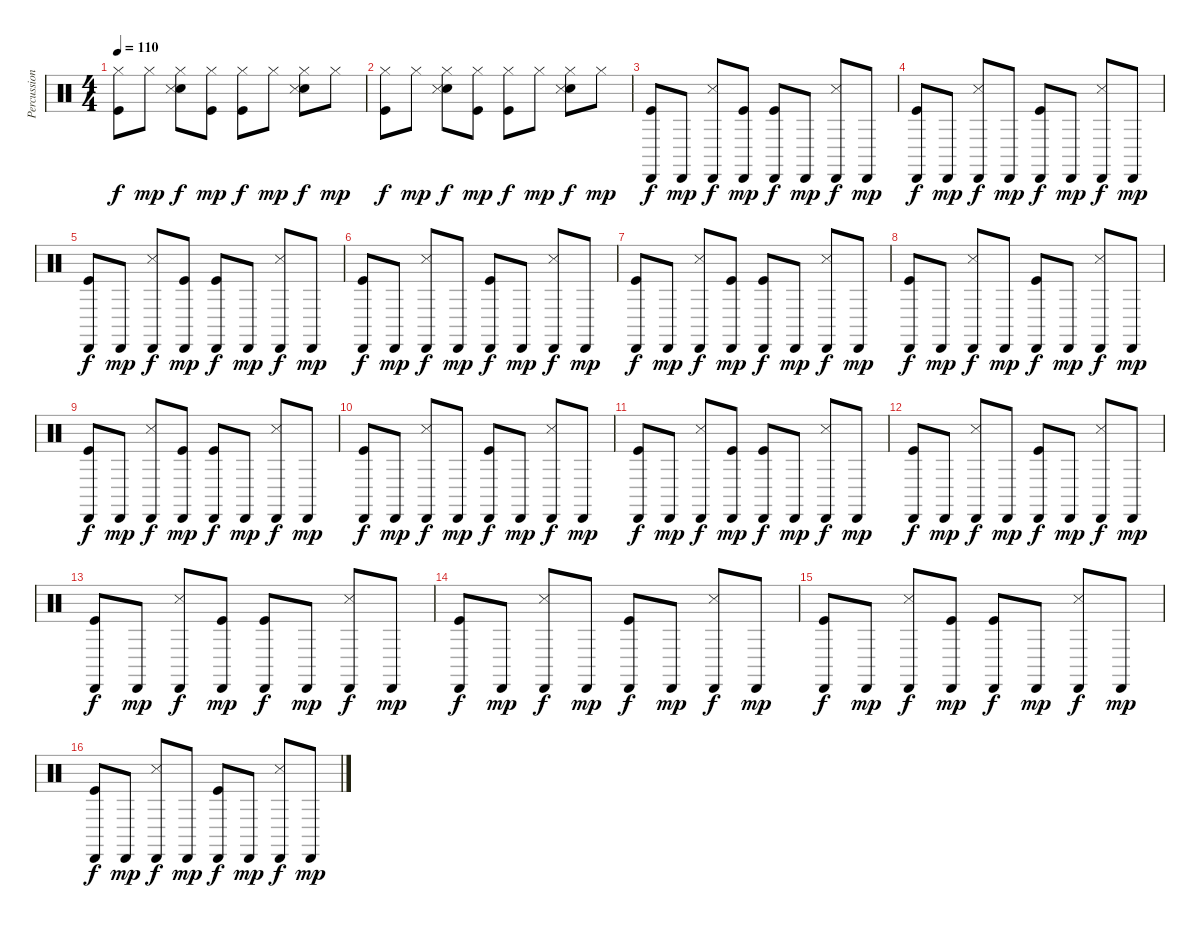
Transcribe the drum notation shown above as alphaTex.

\track ("Percussions" "Percussion") {instrument percussion}
\staff {score}
\articulation defaults
\ts (4 4)
\tempo 110
\clef neutral
\ks c
("Hi-Hat (closed)" "Kick (hit)").8{dy f} "Hi-Hat (closed)".8{dy mp} ("Hi-Hat (closed)" "Hand Clap (hit)" "Snare (side stick) 3").8{dy f} ("Hi-Hat (closed)" "Kick (hit)").8{dy mp} ("Hi-Hat (closed)" "Kick (hit)").8{dy f} "Hi-Hat (closed)".8{dy mp} ("Hi-Hat (closed)" "Hand Clap (hit)" "Snare (side stick) 3").8{dy f} "Hi-Hat (closed)".8{dy mp} |
("Hi-Hat (closed)" "Kick (hit)").8{dy f} "Hi-Hat (closed)".8{dy mp} ("Hi-Hat (closed)" "Hand Clap (hit)" "Snare (side stick) 3").8{dy f} ("Hi-Hat (closed)" "Kick (hit)").8{dy mp} ("Hi-Hat (closed)" "Kick (hit)").8{dy f} "Hi-Hat (closed)".8{dy mp} ("Hi-Hat (closed)" "Hand Clap (hit)" "Snare (side stick) 3").8{dy f} "Hi-Hat (closed)".8{dy mp} |
("Cabasa (hit)" "Kick (hit)").8{dy f} "Cabasa (hit)".8{dy mp} ("Cabasa (hit)" "Snare (side stick) 3").8{dy f} ("Cabasa (hit)" "Kick (hit)").8{dy mp} ("Cabasa (hit)" "Kick (hit)").8{dy f} "Cabasa (hit)".8{dy mp} ("Cabasa (hit)" "Snare (side stick) 3").8{dy f} "Cabasa (hit)".8{dy mp} |
("Cabasa (hit)" "Kick (hit)").8{dy f} "Cabasa (hit)".8{dy mp} ("Cabasa (hit)" "Snare (side stick) 3").8{dy f} "Cabasa (hit)".8{dy mp} ("Cabasa (hit)" "Kick (hit)").8{dy f} "Cabasa (hit)".8{dy mp} ("Cabasa (hit)" "Snare (side stick) 3").8{dy f} "Cabasa (hit)".8{dy mp} |
("Cabasa (hit)" "Kick (hit)").8{dy f} "Cabasa (hit)".8{dy mp} ("Cabasa (hit)" "Snare (side stick) 3").8{dy f} ("Cabasa (hit)" "Kick (hit)").8{dy mp} ("Cabasa (hit)" "Kick (hit)").8{dy f} "Cabasa (hit)".8{dy mp} ("Cabasa (hit)" "Snare (side stick) 3").8{dy f} "Cabasa (hit)".8{dy mp} |
("Cabasa (hit)" "Kick (hit)").8{dy f} "Cabasa (hit)".8{dy mp} ("Cabasa (hit)" "Snare (side stick) 3").8{dy f} "Cabasa (hit)".8{dy mp} ("Cabasa (hit)" "Kick (hit)").8{dy f} "Cabasa (hit)".8{dy mp} ("Cabasa (hit)" "Snare (side stick) 3").8{dy f} "Cabasa (hit)".8{dy mp} |
("Cabasa (hit)" "Kick (hit)").8{dy f} "Cabasa (hit)".8{dy mp} ("Cabasa (hit)" "Snare (side stick) 3").8{dy f} ("Cabasa (hit)" "Kick (hit)").8{dy mp} ("Cabasa (hit)" "Kick (hit)").8{dy f} "Cabasa (hit)".8{dy mp} ("Cabasa (hit)" "Snare (side stick) 3").8{dy f} "Cabasa (hit)".8{dy mp} |
("Cabasa (hit)" "Kick (hit)").8{dy f} "Cabasa (hit)".8{dy mp} ("Cabasa (hit)" "Snare (side stick) 3").8{dy f} "Cabasa (hit)".8{dy mp} ("Cabasa (hit)" "Kick (hit)").8{dy f} "Cabasa (hit)".8{dy mp} ("Cabasa (hit)" "Snare (side stick) 3").8{dy f} "Cabasa (hit)".8{dy mp} |
("Cabasa (hit)" "Kick (hit)").8{dy f} "Cabasa (hit)".8{dy mp} ("Cabasa (hit)" "Snare (side stick) 3").8{dy f} ("Cabasa (hit)" "Kick (hit)").8{dy mp} ("Cabasa (hit)" "Kick (hit)").8{dy f} "Cabasa (hit)".8{dy mp} ("Cabasa (hit)" "Snare (side stick) 3").8{dy f} "Cabasa (hit)".8{dy mp} |
("Cabasa (hit)" "Kick (hit)").8{dy f} "Cabasa (hit)".8{dy mp} ("Cabasa (hit)" "Snare (side stick) 3").8{dy f} "Cabasa (hit)".8{dy mp} ("Cabasa (hit)" "Kick (hit)").8{dy f} "Cabasa (hit)".8{dy mp} ("Cabasa (hit)" "Snare (side stick) 3").8{dy f} "Cabasa (hit)".8{dy mp} |
("Cabasa (hit)" "Kick (hit)").8{dy f} "Cabasa (hit)".8{dy mp} ("Cabasa (hit)" "Snare (side stick) 3").8{dy f} ("Cabasa (hit)" "Kick (hit)").8{dy mp} ("Cabasa (hit)" "Kick (hit)").8{dy f} "Cabasa (hit)".8{dy mp} ("Cabasa (hit)" "Snare (side stick) 3").8{dy f} "Cabasa (hit)".8{dy mp} |
("Cabasa (hit)" "Kick (hit)").8{dy f} "Cabasa (hit)".8{dy mp} ("Cabasa (hit)" "Snare (side stick) 3").8{dy f} "Cabasa (hit)".8{dy mp} ("Cabasa (hit)" "Kick (hit)").8{dy f} "Cabasa (hit)".8{dy mp} ("Cabasa (hit)" "Snare (side stick) 3").8{dy f} "Cabasa (hit)".8{dy mp} |
("Cabasa (hit)" "Kick (hit)").8{dy f} "Cabasa (hit)".8{dy mp} ("Cabasa (hit)" "Snare (side stick) 3").8{dy f} ("Cabasa (hit)" "Kick (hit)").8{dy mp} ("Cabasa (hit)" "Kick (hit)").8{dy f} "Cabasa (hit)".8{dy mp} ("Cabasa (hit)" "Snare (side stick) 3").8{dy f} "Cabasa (hit)".8{dy mp} |
("Cabasa (hit)" "Kick (hit)").8{dy f} "Cabasa (hit)".8{dy mp} ("Cabasa (hit)" "Snare (side stick) 3").8{dy f} "Cabasa (hit)".8{dy mp} ("Cabasa (hit)" "Kick (hit)").8{dy f} "Cabasa (hit)".8{dy mp} ("Cabasa (hit)" "Snare (side stick) 3").8{dy f} "Cabasa (hit)".8{dy mp} |
("Cabasa (hit)" "Kick (hit)").8{dy f} "Cabasa (hit)".8{dy mp} ("Cabasa (hit)" "Snare (side stick) 3").8{dy f} ("Cabasa (hit)" "Kick (hit)").8{dy mp} ("Cabasa (hit)" "Kick (hit)").8{dy f} "Cabasa (hit)".8{dy mp} ("Cabasa (hit)" "Snare (side stick) 3").8{dy f} "Cabasa (hit)".8{dy mp} |
("Cabasa (hit)" "Kick (hit)").8{dy f} "Cabasa (hit)".8{dy mp} ("Cabasa (hit)" "Snare (side stick) 3").8{dy f} "Cabasa (hit)".8{dy mp} ("Cabasa (hit)" "Kick (hit)").8{dy f} "Cabasa (hit)".8{dy mp} ("Cabasa (hit)" "Snare (side stick) 3").8{dy f} "Cabasa (hit)".8{dy mp}
